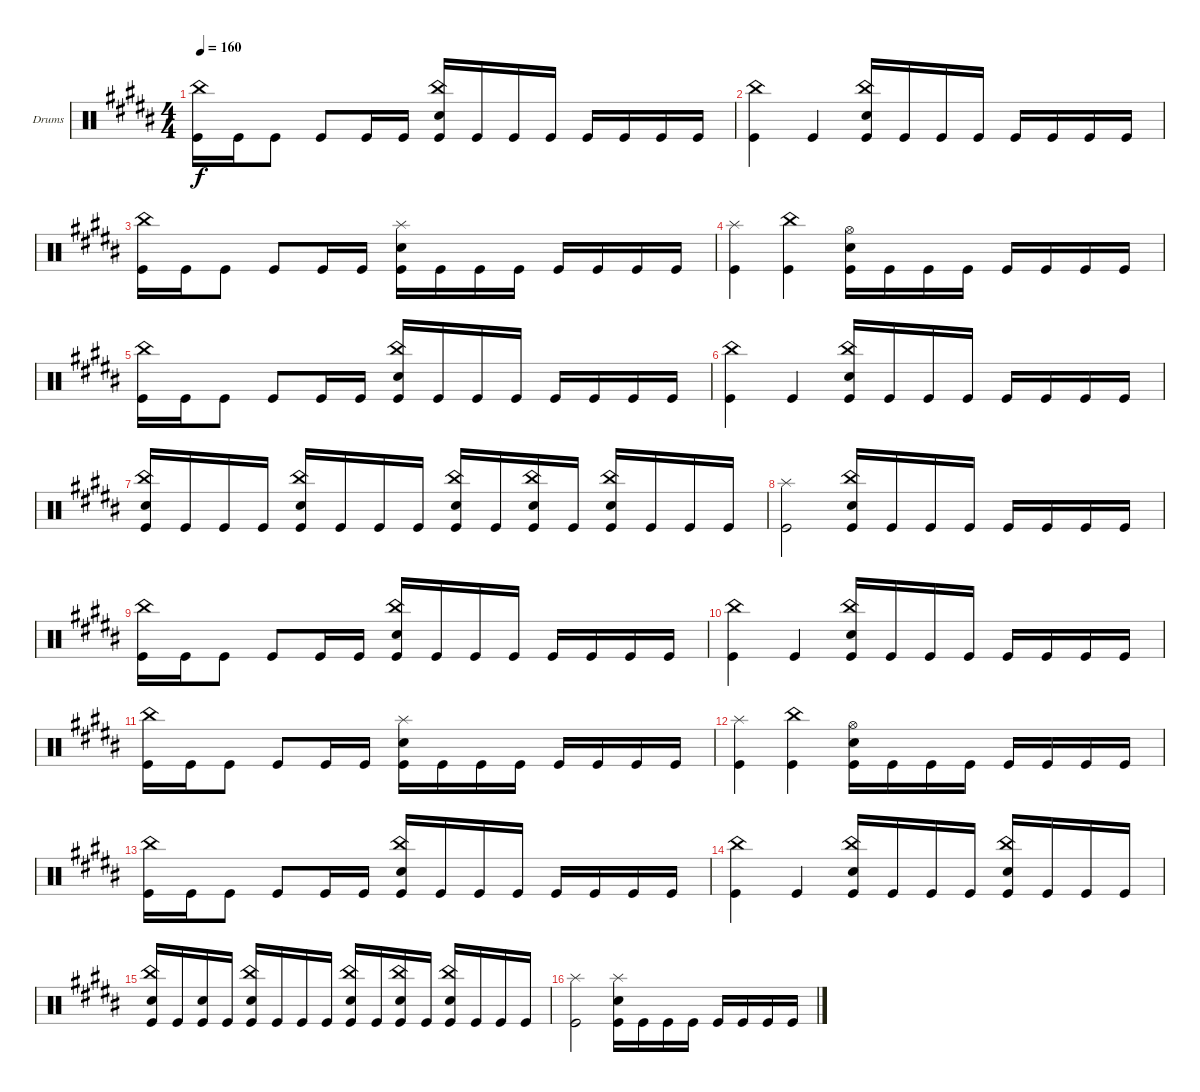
\defaultSystemsLayout 4
\bracketExtendMode groupsimilarinstruments
\firstSystemTrackNameOrientation horizontal
\otherSystemsTrackNameOrientation horizontal
\track ("Drumkit" "Drums") {instrument percussion}
\staff {score}
\articulation defaults
\ts (4 4)
\tempo 160
\clef neutral
\scale
0.333333
\ks b
("Kick (hit)" "China (hit)").16{dy f} "Kick (hit)".16 "Kick (hit)".8 "Kick (hit)".8 "Kick (hit)".16 "Kick (hit)".16 ("Snare (hit) 2" "Kick (hit)" "China (hit)").16 "Kick (hit)".16 "Kick (hit)".16 "Kick (hit)".16 "Kick (hit)".16 "Kick (hit)".16 "Kick (hit)".16 "Kick (hit)".16 |
\scale
0.333333 ("Kick (hit)" "China (hit)").4 "Kick (hit)".4 ("Kick (hit)" "Snare (hit) 2" "China (hit)").16 "Kick (hit)".16 "Kick (hit)".16 "Kick (hit)".16 "Kick (hit)".16 "Kick (hit)".16 "Kick (hit)".16 "Kick (hit)".16 |
\scale
0.333333 ("Kick (hit)" "China (hit)").16 "Kick (hit)".16 "Kick (hit)".8 "Kick (hit)".8 "Kick (hit)".16 "Kick (hit)".16 ("Snare (hit) 2" "Kick (hit)" "Splash (hit)").16 "Kick (hit)".16 "Kick (hit)".16 "Kick (hit)".16 "Kick (hit)".16 "Kick (hit)".16 "Kick (hit)".16 "Kick (hit)".16 |
\scale
0.333333 ("Kick (hit)" "Splash (hit)").4 ("Kick (hit)" "China (hit)").4 ("Kick (hit)" "Hi-Hat (open)" "Snare (hit) 2").16 "Kick (hit)".16 "Kick (hit)".16 "Kick (hit)".16 "Kick (hit)".16 "Kick (hit)".16 "Kick (hit)".16 "Kick (hit)".16 |
\scale
0.333333 ("Kick (hit)" "China (hit)").16 "Kick (hit)".16 "Kick (hit)".8 "Kick (hit)".8 "Kick (hit)".16 "Kick (hit)".16 ("Snare (hit) 2" "Kick (hit)" "China (hit)").16 "Kick (hit)".16 "Kick (hit)".16 "Kick (hit)".16 "Kick (hit)".16 "Kick (hit)".16 "Kick (hit)".16 "Kick (hit)".16 |
\scale
0.333333 ("Kick (hit)" "China (hit)").4 "Kick (hit)".4 ("Kick (hit)" "Snare (hit) 2" "China (hit)").16 "Kick (hit)".16 "Kick (hit)".16 "Kick (hit)".16 "Kick (hit)".16 "Kick (hit)".16 "Kick (hit)".16 "Kick (hit)".16 |
\scale
0.333333 ("Kick (hit)" "Snare (hit) 2" "China (hit)").16 "Kick (hit)".16 "Kick (hit)".16 "Kick (hit)".16 ("Kick (hit)" "Snare (hit) 2" "China (hit)").16 "Kick (hit)".16 "Kick (hit)".16 "Kick (hit)".16 ("Kick (hit)" "Snare (hit) 2" "China (hit)").16 "Kick (hit)".16 ("Kick (hit)" "Snare (hit) 2" "China (hit)").16 "Kick (hit)".16 ("Kick (hit)" "Snare (hit) 2" "China (hit)").16 "Kick (hit)".16 "Kick (hit)".16 "Kick (hit)".16 |
\scale
0.333333 ("Kick (hit)" "Splash (hit)").2 ("Kick (hit)" "Snare (hit) 2" "China (hit)").16 "Kick (hit)".16 "Kick (hit)".16 "Kick (hit)".16 "Kick (hit)".16 "Kick (hit)".16 "Kick (hit)".16 "Kick (hit)".16 |
\scale
0.333333 ("Kick (hit)" "China (hit)").16 "Kick (hit)".16 "Kick (hit)".8 "Kick (hit)".8 "Kick (hit)".16 "Kick (hit)".16 ("Snare (hit) 2" "Kick (hit)" "China (hit)").16 "Kick (hit)".16 "Kick (hit)".16 "Kick (hit)".16 "Kick (hit)".16 "Kick (hit)".16 "Kick (hit)".16 "Kick (hit)".16 |
\scale
0.333333 ("Kick (hit)" "China (hit)").4 "Kick (hit)".4 ("Kick (hit)" "Snare (hit) 2" "China (hit)").16 "Kick (hit)".16 "Kick (hit)".16 "Kick (hit)".16 "Kick (hit)".16 "Kick (hit)".16 "Kick (hit)".16 "Kick (hit)".16 |
\scale
0.333333 ("Kick (hit)" "China (hit)").16 "Kick (hit)".16 "Kick (hit)".8 "Kick (hit)".8 "Kick (hit)".16 "Kick (hit)".16 ("Snare (hit) 2" "Kick (hit)" "Splash (hit)").16 "Kick (hit)".16 "Kick (hit)".16 "Kick (hit)".16 "Kick (hit)".16 "Kick (hit)".16 "Kick (hit)".16 "Kick (hit)".16 |
\scale
0.333333 ("Kick (hit)" "Splash (hit)").4 ("Kick (hit)" "China (hit)").4 ("Kick (hit)" "Hi-Hat (open)" "Snare (hit) 2").16 "Kick (hit)".16 "Kick (hit)".16 "Kick (hit)".16 "Kick (hit)".16 "Kick (hit)".16 "Kick (hit)".16 "Kick (hit)".16 |
\scale
0.333333 ("Kick (hit)" "China (hit)").16 "Kick (hit)".16 "Kick (hit)".8 "Kick (hit)".8 "Kick (hit)".16 "Kick (hit)".16 ("Snare (hit) 2" "Kick (hit)" "China (hit)").16 "Kick (hit)".16 "Kick (hit)".16 "Kick (hit)".16 "Kick (hit)".16 "Kick (hit)".16 "Kick (hit)".16 "Kick (hit)".16 |
\scale
0.333333 ("Kick (hit)" "China (hit)").4 "Kick (hit)".4 ("Kick (hit)" "Snare (hit) 2" "China (hit)").16 "Kick (hit)".16 "Kick (hit)".16 "Kick (hit)".16 ("Kick (hit)" "Snare (hit) 2" "China (hit)").16 "Kick (hit)".16 "Kick (hit)".16 "Kick (hit)".16 |
\scale
0.333333 ("Kick (hit)" "Snare (hit) 2" "China (hit)").16 "Kick (hit)".16 ("Kick (hit)" "Snare (hit) 2").16 "Kick (hit)".16 ("Kick (hit)" "Snare (hit) 2" "China (hit)").16 "Kick (hit)".16 "Kick (hit)".16 "Kick (hit)".16 ("Kick (hit)" "Snare (hit) 2" "China (hit)").16 "Kick (hit)".16 ("Kick (hit)" "Snare (hit) 2" "China (hit)").16 "Kick (hit)".16 ("Kick (hit)" "Snare (hit) 2" "China (hit)").16 "Kick (hit)".16 "Kick (hit)".16 "Kick (hit)".16 |
\scale
0.333333 ("Kick (hit)" "Splash (hit)").2 ("Kick (hit)" "Snare (hit) 2" "Splash (hit)").16 "Kick (hit)".16 "Kick (hit)".16 "Kick (hit)".16 "Kick (hit)".16 "Kick (hit)".16 "Kick (hit)".16 "Kick (hit)".16
